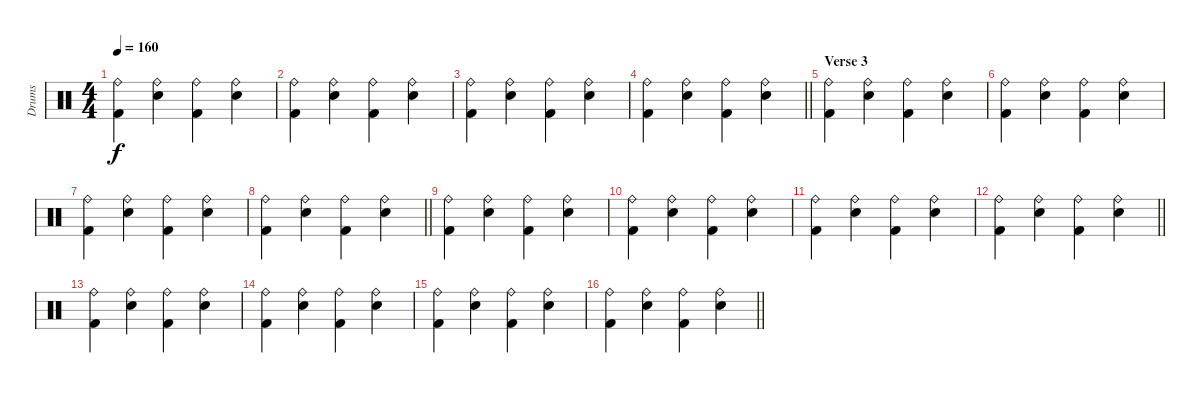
\track ("Drums" "Drums") {instrument percussion}
\staff {score}
\articulation defaults
\ts (4 4)
\tempo 160
\clef neutral
\ks c
("Ride (bell)" "Kick (hit) 2").4{dy f} ("Ride (bell)" "Snare (hit) 2").4 ("Ride (bell)" "Kick (hit) 2").4 ("Ride (bell)" "Snare (hit) 2").4 |
("Ride (bell)" "Kick (hit) 2").4 ("Ride (bell)" "Snare (hit) 2").4 ("Ride (bell)" "Kick (hit) 2").4 ("Ride (bell)" "Snare (hit) 2").4 |
("Ride (bell)" "Kick (hit) 2").4 ("Ride (bell)" "Snare (hit) 2").4 ("Ride (bell)" "Kick (hit) 2").4 ("Ride (bell)" "Snare (hit) 2").4 |
\barLineRight lightlight
("Ride (bell)" "Kick (hit) 2").4 ("Ride (bell)" "Snare (hit) 2").4 ("Ride (bell)" "Kick (hit) 2").4 ("Ride (bell)" "Snare (hit) 2").4 |
\section ("" "Verse 3")
("Ride (bell)" "Kick (hit) 2").4 ("Ride (bell)" "Snare (hit) 2").4 ("Ride (bell)" "Kick (hit) 2").4 ("Ride (bell)" "Snare (hit) 2").4 |
("Ride (bell)" "Kick (hit) 2").4 ("Ride (bell)" "Snare (hit) 2").4 ("Ride (bell)" "Kick (hit) 2").4 ("Ride (bell)" "Snare (hit) 2").4 |
("Ride (bell)" "Kick (hit) 2").4 ("Ride (bell)" "Snare (hit) 2").4 ("Ride (bell)" "Kick (hit) 2").4 ("Ride (bell)" "Snare (hit) 2").4 |
\barLineRight lightlight
("Ride (bell)" "Kick (hit) 2").4 ("Ride (bell)" "Snare (hit) 2").4 ("Ride (bell)" "Kick (hit) 2").4 ("Ride (bell)" "Snare (hit) 2").4 |
("Ride (bell)" "Kick (hit) 2").4 ("Ride (bell)" "Snare (hit) 2").4 ("Ride (bell)" "Kick (hit) 2").4 ("Ride (bell)" "Snare (hit) 2").4 |
("Ride (bell)" "Kick (hit) 2").4 ("Ride (bell)" "Snare (hit) 2").4 ("Ride (bell)" "Kick (hit) 2").4 ("Ride (bell)" "Snare (hit) 2").4 |
("Ride (bell)" "Kick (hit) 2").4 ("Ride (bell)" "Snare (hit) 2").4 ("Ride (bell)" "Kick (hit) 2").4 ("Ride (bell)" "Snare (hit) 2").4 |
\barLineRight lightlight
("Ride (bell)" "Kick (hit) 2").4 ("Ride (bell)" "Snare (hit) 2").4 ("Ride (bell)" "Kick (hit) 2").4 ("Ride (bell)" "Snare (hit) 2").4 |
("Ride (bell)" "Kick (hit) 2").4 ("Ride (bell)" "Snare (hit) 2").4 ("Ride (bell)" "Kick (hit) 2").4 ("Ride (bell)" "Snare (hit) 2").4 |
("Ride (bell)" "Kick (hit) 2").4 ("Ride (bell)" "Snare (hit) 2").4 ("Ride (bell)" "Kick (hit) 2").4 ("Ride (bell)" "Snare (hit) 2").4 |
("Ride (bell)" "Kick (hit) 2").4 ("Ride (bell)" "Snare (hit) 2").4 ("Ride (bell)" "Kick (hit) 2").4 ("Ride (bell)" "Snare (hit) 2").4 |
\barLineRight lightlight
("Ride (bell)" "Kick (hit) 2").4 ("Ride (bell)" "Snare (hit) 2").4 ("Ride (bell)" "Kick (hit) 2").4 ("Ride (bell)" "Snare (hit) 2").4
